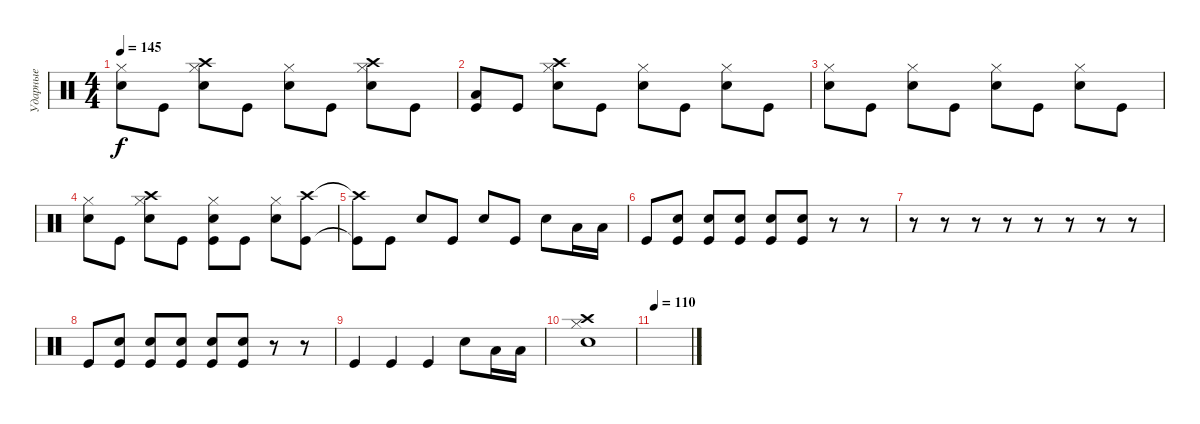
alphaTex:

\track ("Ударные" "Ударные") {instrument percussion}
\staff {score}
\articulation defaults
\ts (4 4)
\tempo 145
\clef neutral
\ks c
("Hi-Hat (closed)" "Electric Snare (hit)").8{dy f} "Kick (hit)".8 ("Crash high (hit)" "Hi-Hat (closed)" "Electric Snare (hit)").8 "Kick (hit)".8 ("Hi-Hat (closed)" "Electric Snare (hit)").8 "Kick (hit)".8 ("Crash high (hit)" "Hi-Hat (closed)" "Electric Snare (hit)").8 "Kick (hit)".8 |
("Low Tom (hit)" "Kick (hit)").8 "Kick (hit)".8 ("Crash high (hit)" "Hi-Hat (closed)" "Electric Snare (hit)").8 "Kick (hit)".8 ("Hi-Hat (closed)" "Electric Snare (hit)").8 "Kick (hit)".8 ("Hi-Hat (closed)" "Electric Snare (hit)").8 "Kick (hit)".8 |
("Hi-Hat (closed)" "Electric Snare (hit)").8 "Kick (hit)".8 ("Hi-Hat (closed)" "Electric Snare (hit)").8 "Kick (hit)".8 ("Hi-Hat (closed)" "Electric Snare (hit)").8 "Kick (hit)".8 ("Hi-Hat (closed)" "Electric Snare (hit)").8 "Kick (hit)".8 |
("Hi-Hat (closed)" "Electric Snare (hit)").8 "Kick (hit)".8 ("Crash high (hit)" "Hi-Hat (closed)" "Electric Snare (hit)").8 "Kick (hit)".8 ("Hi-Hat (closed)" "Electric Snare (hit)" "Kick (hit)").8 "Kick (hit)".8 ("Hi-Hat (closed)" "Electric Snare (hit)").8 ("Crash high (hit)" "Kick (hit)").8 |
("Crash high (hit)"{t} "Kick (hit)"{t}).8 "Kick (hit)".8 "Electric Snare (hit)".8 "Kick (hit)".8 "Electric Snare (hit)".8 "Kick (hit)".8 "Electric Snare (hit)".8 "Low Tom (hit)".16 "Low Tom (hit)".16 |
"Kick (hit)".8 ("Electric Snare (hit)" "Kick (hit)").8 ("Electric Snare (hit)" "Kick (hit)").8 ("Electric Snare (hit)" "Kick (hit)").8 ("Electric Snare (hit)" "Kick (hit)").8 ("Electric Snare (hit)" "Kick (hit)").8 r.8 r.8 |
r.8 r.8 r.8 r.8 r.8 r.8 r.8 r.8 |
"Kick (hit)".8 ("Electric Snare (hit)" "Kick (hit)").8 ("Electric Snare (hit)" "Kick (hit)").8 ("Electric Snare (hit)" "Kick (hit)").8 ("Electric Snare (hit)" "Kick (hit)").8 ("Electric Snare (hit)" "Kick (hit)").8 r.8 r.8 |
"Kick (hit)".4 "Kick (hit)".4 "Kick (hit)".4 "Electric Snare (hit)".8 "Low Tom (hit)".16 "Low Tom (hit)".16 |
("Crash high (hit)" "Hi-Hat (closed)" "Electric Snare (hit)").1 |
\tempo 110
